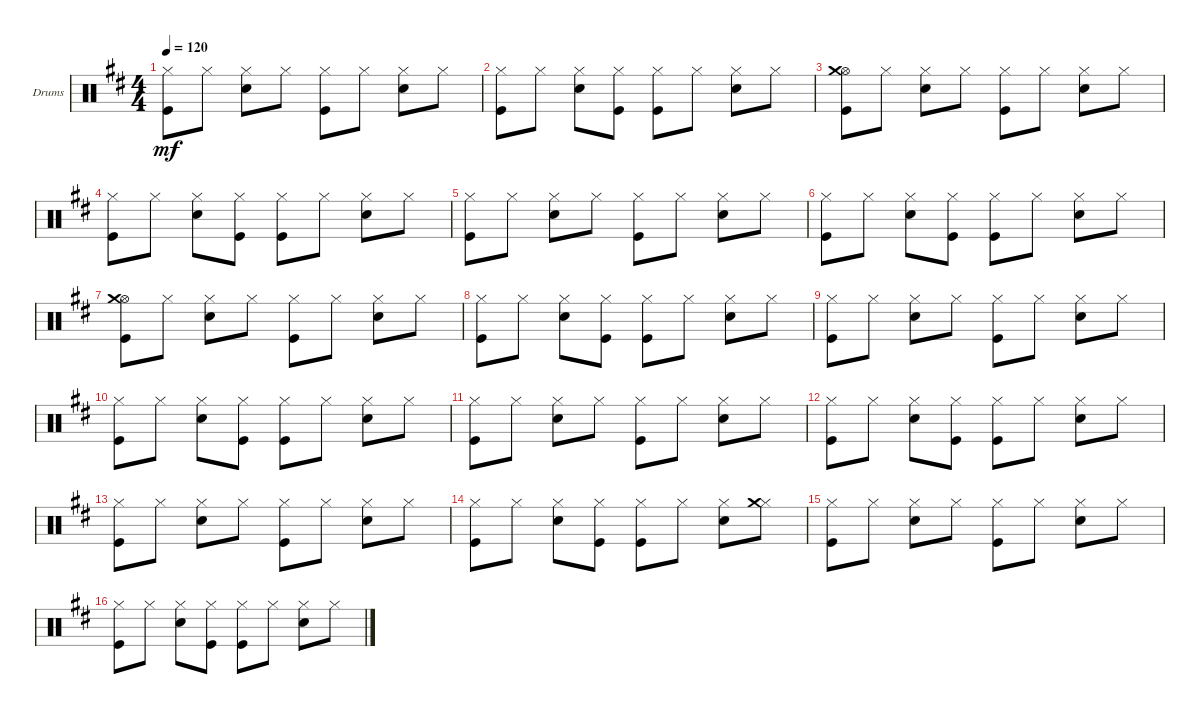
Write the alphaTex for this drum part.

\defaultSystemsLayout 4
\bracketExtendMode groupsimilarinstruments
\firstSystemTrackNameOrientation horizontal
\otherSystemsTrackNameOrientation horizontal
\track ("Drumkit" "Drums") {instrument percussion}
\staff {score}
\articulation defaults
\ts (4 4)
\tempo 120
\clef neutral
\ks d
("Kick (hit)" "Hi-Hat (closed)").8{dy mf} "Hi-Hat (closed)".8 ("Hi-Hat (closed)" "Snare (hit) 2").8 "Hi-Hat (closed)".8 ("Hi-Hat (closed)" "Kick (hit)").8 "Hi-Hat (closed)".8 ("Hi-Hat (closed)" "Snare (hit) 2").8 "Hi-Hat (closed)".8 |
("Hi-Hat (closed)" "Kick (hit)").8 "Hi-Hat (closed)".8 ("Hi-Hat (closed)" "Snare (hit) 2").8 ("Hi-Hat (closed)" "Kick (hit)").8 ("Hi-Hat (closed)" "Kick (hit)").8 "Hi-Hat (closed)".8 ("Hi-Hat (closed)" "Snare (hit) 2").8 "Hi-Hat (closed)".8 |
("Hi-Hat (open)" "Kick (hit)" "Crash medium (hit)").8 "Hi-Hat (closed)".8 ("Hi-Hat (closed)" "Snare (hit) 2").8 "Hi-Hat (closed)".8 ("Hi-Hat (closed)" "Kick (hit)").8 "Hi-Hat (closed)".8 ("Hi-Hat (closed)" "Snare (hit) 2").8 "Hi-Hat (closed)".8 |
("Hi-Hat (closed)" "Kick (hit)").8 "Hi-Hat (closed)".8 ("Hi-Hat (closed)" "Snare (hit) 2").8 ("Hi-Hat (closed)" "Kick (hit)").8 ("Hi-Hat (closed)" "Kick (hit)").8 "Hi-Hat (closed)".8 ("Hi-Hat (closed)" "Snare (hit) 2").8 "Hi-Hat (closed)".8 |
("Kick (hit)" "Hi-Hat (closed)").8 "Hi-Hat (closed)".8 ("Hi-Hat (closed)" "Snare (hit) 2").8 "Hi-Hat (closed)".8 ("Hi-Hat (closed)" "Kick (hit)").8 "Hi-Hat (closed)".8 ("Hi-Hat (closed)" "Snare (hit) 2").8 "Hi-Hat (closed)".8 |
("Hi-Hat (closed)" "Kick (hit)").8 "Hi-Hat (closed)".8 ("Hi-Hat (closed)" "Snare (hit) 2").8 ("Hi-Hat (closed)" "Kick (hit)").8 ("Hi-Hat (closed)" "Kick (hit)").8 "Hi-Hat (closed)".8 ("Hi-Hat (closed)" "Snare (hit) 2").8 "Hi-Hat (closed)".8 |
("Hi-Hat (open)" "Kick (hit)" "Crash medium (hit)").8 "Hi-Hat (closed)".8 ("Hi-Hat (closed)" "Snare (hit) 2").8 "Hi-Hat (closed)".8 ("Hi-Hat (closed)" "Kick (hit)").8 "Hi-Hat (closed)".8 ("Hi-Hat (closed)" "Snare (hit) 2").8 "Hi-Hat (closed)".8 |
("Hi-Hat (closed)" "Kick (hit)").8 "Hi-Hat (closed)".8 ("Hi-Hat (closed)" "Snare (hit) 2").8 ("Hi-Hat (closed)" "Kick (hit)").8 ("Hi-Hat (closed)" "Kick (hit)").8 "Hi-Hat (closed)".8 ("Hi-Hat (closed)" "Snare (hit) 2").8 "Hi-Hat (closed)".8 |
("Kick (hit)" "Hi-Hat (closed)").8 "Hi-Hat (closed)".8 ("Hi-Hat (closed)" "Snare (hit) 2").8 "Hi-Hat (closed)".8 ("Hi-Hat (closed)" "Kick (hit)").8 "Hi-Hat (closed)".8 ("Hi-Hat (closed)" "Snare (hit) 2").8 "Hi-Hat (closed)".8 |
("Hi-Hat (closed)" "Kick (hit)").8 "Hi-Hat (closed)".8 ("Hi-Hat (closed)" "Snare (hit) 2").8 ("Hi-Hat (closed)" "Kick (hit)").8 ("Hi-Hat (closed)" "Kick (hit)").8 "Hi-Hat (closed)".8 ("Hi-Hat (closed)" "Snare (hit) 2").8 "Hi-Hat (closed)".8 |
("Kick (hit)" "Hi-Hat (closed)").8 "Hi-Hat (closed)".8 ("Hi-Hat (closed)" "Snare (hit) 2").8 "Hi-Hat (closed)".8 ("Hi-Hat (closed)" "Kick (hit)").8 "Hi-Hat (closed)".8 ("Hi-Hat (closed)" "Snare (hit) 2").8 "Hi-Hat (closed)".8 |
("Hi-Hat (closed)" "Kick (hit)").8 "Hi-Hat (closed)".8 ("Hi-Hat (closed)" "Snare (hit) 2").8 ("Hi-Hat (closed)" "Kick (hit)").8 ("Hi-Hat (closed)" "Kick (hit)").8 "Hi-Hat (closed)".8 ("Hi-Hat (closed)" "Snare (hit) 2").8 "Hi-Hat (closed)".8 |
("Kick (hit)" "Hi-Hat (closed)").8 "Hi-Hat (closed)".8 ("Hi-Hat (closed)" "Snare (hit) 2").8 "Hi-Hat (closed)".8 ("Hi-Hat (closed)" "Kick (hit)").8 "Hi-Hat (closed)".8 ("Hi-Hat (closed)" "Snare (hit) 2").8 "Hi-Hat (closed)".8 |
("Hi-Hat (closed)" "Kick (hit)").8 "Hi-Hat (closed)".8 ("Hi-Hat (closed)" "Snare (hit) 2").8 ("Hi-Hat (closed)" "Kick (hit)").8 ("Hi-Hat (closed)" "Kick (hit)").8 "Hi-Hat (closed)".8 ("Hi-Hat (closed)" "Snare (hit) 2").8 ("Hi-Hat (closed)" "Crash medium (hit)").8 |
("Kick (hit)" "Hi-Hat (closed)").8 "Hi-Hat (closed)".8 ("Hi-Hat (closed)" "Snare (hit) 2").8 "Hi-Hat (closed)".8 ("Hi-Hat (closed)" "Kick (hit)").8 "Hi-Hat (closed)".8 ("Hi-Hat (closed)" "Snare (hit) 2").8 "Hi-Hat (closed)".8 |
("Hi-Hat (closed)" "Kick (hit)").8 "Hi-Hat (closed)".8 ("Hi-Hat (closed)" "Snare (hit) 2").8 ("Hi-Hat (closed)" "Kick (hit)").8 ("Hi-Hat (closed)" "Kick (hit)").8 "Hi-Hat (closed)".8 ("Hi-Hat (closed)" "Snare (hit) 2").8 "Hi-Hat (closed)".8
